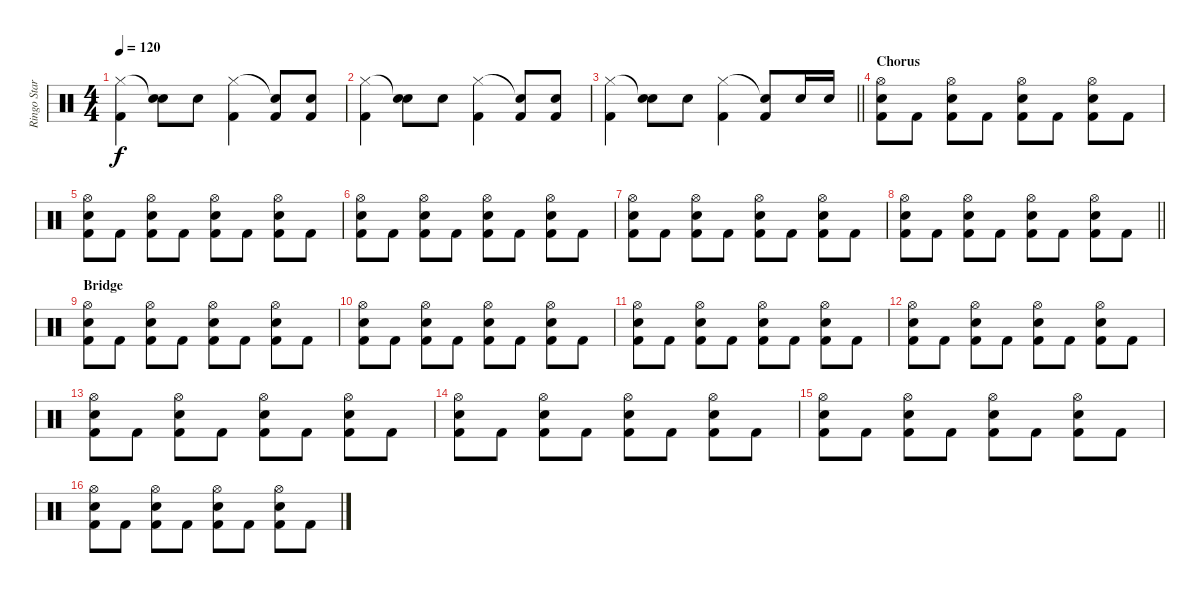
\track ("Ringo Starr" "Ringo Star") {instrument percussion}
\staff {score}
\articulation defaults
\ts (4 4)
\tempo 120
\clef neutral
\ks c
("Hi-Hat (closed)" "Kick (hit) 2").4{dy f} ("Snare (hit)"{t} "Electric Snare (hit)").8 "Electric Snare (hit)".8 ("Hi-Hat (closed)" "Kick (hit) 2").4 ("Snare (hit)"{t} "Kick (hit) 2").8 ("Snare (hit) 2" "Kick (hit) 2").8 |
("Hi-Hat (closed)" "Kick (hit) 2").4 ("Snare (hit)"{t} "Electric Snare (hit)").8 "Electric Snare (hit)".8 ("Hi-Hat (closed)" "Kick (hit) 2").4 ("Snare (hit)"{t} "Kick (hit) 2").8 ("Snare (hit) 2" "Kick (hit) 2").8 |
\barLineRight lightlight
("Hi-Hat (closed)" "Kick (hit) 2").4 ("Snare (hit)"{t} "Electric Snare (hit)").8 "Electric Snare (hit)".8 ("Hi-Hat (closed)" "Kick (hit) 2").4 ("Snare (hit)"{t} "Kick (hit) 2").8 "Electric Snare (hit)".16 "Electric Snare (hit)".16 |
\section ("" "Chorus")
("Hi-Hat (open)" "Electric Snare (hit)" "Kick (hit) 2").8 "Kick (hit) 2".8 ("Hi-Hat (open)" "Electric Snare (hit)" "Kick (hit) 2").8 "Kick (hit) 2".8 ("Hi-Hat (open)" "Electric Snare (hit)" "Kick (hit) 2").8 "Kick (hit) 2".8 ("Hi-Hat (open)" "Electric Snare (hit)" "Kick (hit) 2").8 "Kick (hit) 2".8 |
("Hi-Hat (open)" "Electric Snare (hit)" "Kick (hit) 2").8 "Kick (hit) 2".8 ("Hi-Hat (open)" "Electric Snare (hit)" "Kick (hit) 2").8 "Kick (hit) 2".8 ("Hi-Hat (open)" "Electric Snare (hit)" "Kick (hit) 2").8 "Kick (hit) 2".8 ("Hi-Hat (open)" "Electric Snare (hit)" "Kick (hit) 2").8 "Kick (hit) 2".8 |
("Hi-Hat (open)" "Electric Snare (hit)" "Kick (hit) 2").8 "Kick (hit) 2".8 ("Hi-Hat (open)" "Electric Snare (hit)" "Kick (hit) 2").8 "Kick (hit) 2".8 ("Hi-Hat (open)" "Electric Snare (hit)" "Kick (hit) 2").8 "Kick (hit) 2".8 ("Hi-Hat (open)" "Electric Snare (hit)" "Kick (hit) 2").8 "Kick (hit) 2".8 |
("Hi-Hat (open)" "Electric Snare (hit)" "Kick (hit) 2").8 "Kick (hit) 2".8 ("Hi-Hat (open)" "Electric Snare (hit)" "Kick (hit) 2").8 "Kick (hit) 2".8 ("Hi-Hat (open)" "Electric Snare (hit)" "Kick (hit) 2").8 "Kick (hit) 2".8 ("Hi-Hat (open)" "Electric Snare (hit)" "Kick (hit) 2").8 "Kick (hit) 2".8 |
\barLineRight lightlight
("Hi-Hat (open)" "Electric Snare (hit)" "Kick (hit) 2").8 "Kick (hit) 2".8 ("Hi-Hat (open)" "Electric Snare (hit)" "Kick (hit) 2").8 "Kick (hit) 2".8 ("Hi-Hat (open)" "Electric Snare (hit)" "Kick (hit) 2").8 "Kick (hit) 2".8 ("Hi-Hat (open)" "Electric Snare (hit)" "Kick (hit) 2").8 "Kick (hit) 2".8 |
\section ("" "Bridge")
("Hi-Hat (open)" "Electric Snare (hit)" "Kick (hit) 2").8 "Kick (hit) 2".8 ("Hi-Hat (open)" "Electric Snare (hit)" "Kick (hit) 2").8 "Kick (hit) 2".8 ("Hi-Hat (open)" "Electric Snare (hit)" "Kick (hit) 2").8 "Kick (hit) 2".8 ("Hi-Hat (open)" "Electric Snare (hit)" "Kick (hit) 2").8 "Kick (hit) 2".8 |
("Hi-Hat (open)" "Electric Snare (hit)" "Kick (hit) 2").8 "Kick (hit) 2".8 ("Hi-Hat (open)" "Electric Snare (hit)" "Kick (hit) 2").8 "Kick (hit) 2".8 ("Hi-Hat (open)" "Electric Snare (hit)" "Kick (hit) 2").8 "Kick (hit) 2".8 ("Hi-Hat (open)" "Electric Snare (hit)" "Kick (hit) 2").8 "Kick (hit) 2".8 |
("Hi-Hat (open)" "Electric Snare (hit)" "Kick (hit) 2").8 "Kick (hit) 2".8 ("Hi-Hat (open)" "Electric Snare (hit)" "Kick (hit) 2").8 "Kick (hit) 2".8 ("Hi-Hat (open)" "Electric Snare (hit)" "Kick (hit) 2").8 "Kick (hit) 2".8 ("Hi-Hat (open)" "Electric Snare (hit)" "Kick (hit) 2").8 "Kick (hit) 2".8 |
("Hi-Hat (open)" "Electric Snare (hit)" "Kick (hit) 2").8 "Kick (hit) 2".8 ("Hi-Hat (open)" "Electric Snare (hit)" "Kick (hit) 2").8 "Kick (hit) 2".8 ("Hi-Hat (open)" "Electric Snare (hit)" "Kick (hit) 2").8 "Kick (hit) 2".8 ("Hi-Hat (open)" "Electric Snare (hit)" "Kick (hit) 2").8 "Kick (hit) 2".8 |
("Hi-Hat (open)" "Electric Snare (hit)" "Kick (hit) 2").8 "Kick (hit) 2".8 ("Hi-Hat (open)" "Electric Snare (hit)" "Kick (hit) 2").8 "Kick (hit) 2".8 ("Hi-Hat (open)" "Electric Snare (hit)" "Kick (hit) 2").8 "Kick (hit) 2".8 ("Hi-Hat (open)" "Electric Snare (hit)" "Kick (hit) 2").8 "Kick (hit) 2".8 |
("Hi-Hat (open)" "Electric Snare (hit)" "Kick (hit) 2").8 "Kick (hit) 2".8 ("Hi-Hat (open)" "Electric Snare (hit)" "Kick (hit) 2").8 "Kick (hit) 2".8 ("Hi-Hat (open)" "Electric Snare (hit)" "Kick (hit) 2").8 "Kick (hit) 2".8 ("Hi-Hat (open)" "Electric Snare (hit)" "Kick (hit) 2").8 "Kick (hit) 2".8 |
("Hi-Hat (open)" "Electric Snare (hit)" "Kick (hit) 2").8 "Kick (hit) 2".8 ("Hi-Hat (open)" "Electric Snare (hit)" "Kick (hit) 2").8 "Kick (hit) 2".8 ("Hi-Hat (open)" "Electric Snare (hit)" "Kick (hit) 2").8 "Kick (hit) 2".8 ("Hi-Hat (open)" "Electric Snare (hit)" "Kick (hit) 2").8 "Kick (hit) 2".8 |
("Hi-Hat (open)" "Electric Snare (hit)" "Kick (hit) 2").8 "Kick (hit) 2".8 ("Hi-Hat (open)" "Electric Snare (hit)" "Kick (hit) 2").8 "Kick (hit) 2".8 ("Hi-Hat (open)" "Electric Snare (hit)" "Kick (hit) 2").8 "Kick (hit) 2".8 ("Hi-Hat (open)" "Electric Snare (hit)" "Kick (hit) 2").8 "Kick (hit) 2".8
